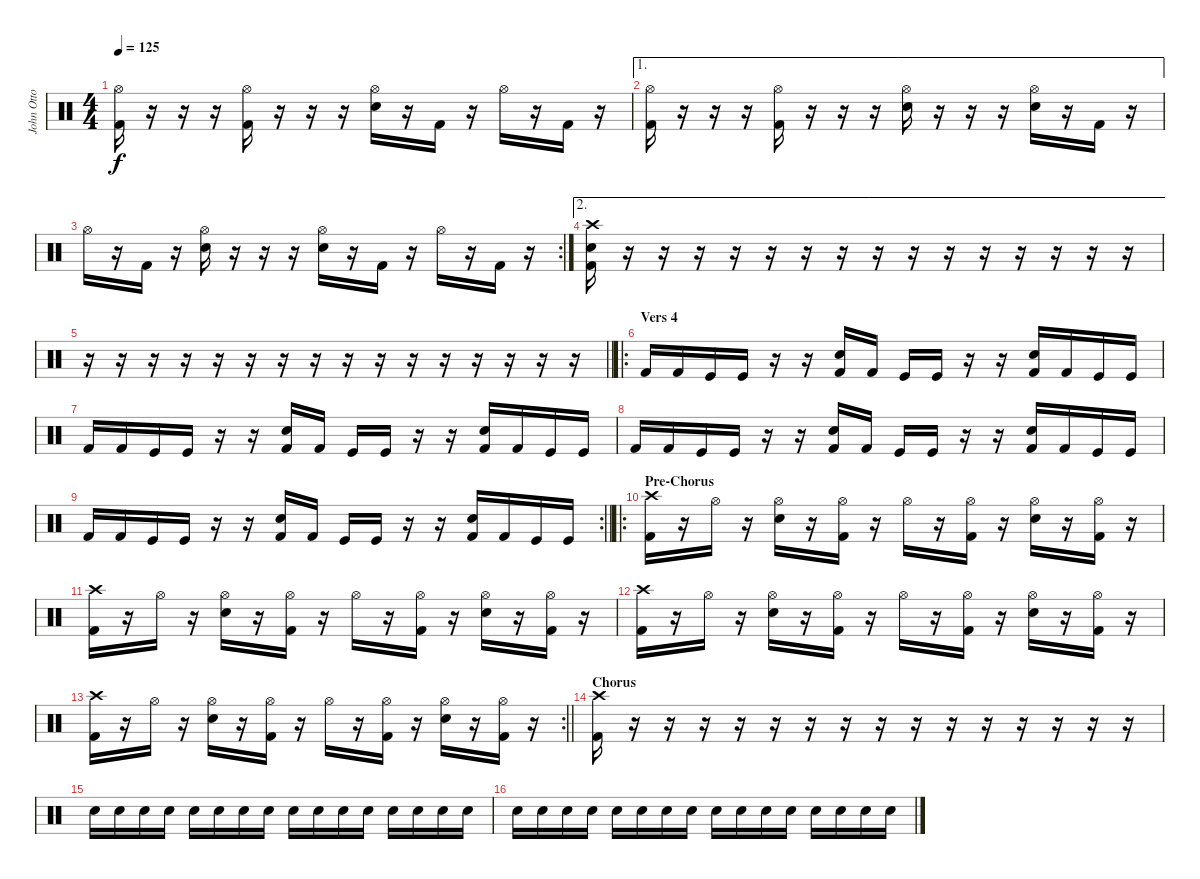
\track ("John Otto" "John Otto") {instrument percussion}
\staff {score}
\articulation defaults
\ts (4 4)
\tempo 125
\clef neutral
\ks c
("Hi-Hat (open)" "Kick (hit) 2").16{dy f} r.16 r.16 r.16 ("Hi-Hat (open)" "Kick (hit) 2").16 r.16 r.16 r.16 ("Hi-Hat (open)" "Snare (hit) 2").16 r.16 "Kick (hit) 2".16 r.16 "Hi-Hat (open)".16 r.16 "Kick (hit) 2".16 r.16 |
\ae 1
("Hi-Hat (open)" "Kick (hit) 2").16 r.16 r.16 r.16 ("Hi-Hat (open)" "Kick (hit) 2").16 r.16 r.16 r.16 ("Hi-Hat (open)" "Snare (hit) 2").16 r.16 r.16 r.16 ("Hi-Hat (open)" "Snare (hit) 2").16 r.16 "Kick (hit) 2".16 r.16 |
\rc 2 "Hi-Hat (open)".16
r.16 "Kick (hit) 2".16 r.16 ("Hi-Hat (open)" "Snare (hit) 2").16 r.16 r.16 r.16 ("Hi-Hat (open)" "Snare (hit) 2").16 r.16 "Kick (hit) 2".16 r.16 "Hi-Hat (open)".16 r.16 "Kick (hit) 2".16 r.16 |
\ae 2
("Crash high (hit)" "Snare (hit) 2" "Kick (hit) 2").16 r.16 r.16 r.16 r.16 r.16 r.16 r.16 r.16 r.16 r.16 r.16 r.16 r.16 r.16 r.16 |
\barLineRight lightlight
r.16 r.16 r.16 r.16 r.16 r.16 r.16 r.16 r.16 r.16 r.16 r.16 r.16 r.16 r.16 r.16 |
\ro
\section ("" "Vers 4")
"Kick (hit) 2".16 "Kick (hit) 2".16 "Kick (hit)".16 "Kick (hit)".16 r.16 r.16 ("Snare (hit) 2" "Kick (hit) 2").16 "Kick (hit) 2".16 "Kick (hit)".16 "Kick (hit)".16 r.16 r.16 ("Snare (hit) 2" "Kick (hit) 2").16 "Kick (hit) 2".16 "Kick (hit)".16 "Kick (hit)".16 |
"Kick (hit) 2".16 "Kick (hit) 2".16 "Kick (hit)".16 "Kick (hit)".16 r.16 r.16 ("Snare (hit) 2" "Kick (hit) 2").16 "Kick (hit) 2".16 "Kick (hit)".16 "Kick (hit)".16 r.16 r.16 ("Snare (hit) 2" "Kick (hit) 2").16 "Kick (hit) 2".16 "Kick (hit)".16 "Kick (hit)".16 |
"Kick (hit) 2".16 "Kick (hit) 2".16 "Kick (hit)".16 "Kick (hit)".16 r.16 r.16 ("Snare (hit) 2" "Kick (hit) 2").16 "Kick (hit) 2".16 "Kick (hit)".16 "Kick (hit)".16 r.16 r.16 ("Snare (hit) 2" "Kick (hit) 2").16 "Kick (hit) 2".16 "Kick (hit)".16 "Kick (hit)".16 |
\rc 2
\barLineRight lightlight "Kick (hit) 2".16 "Kick (hit) 2".16 "Kick (hit)".16 "Kick (hit)".16
r.16 r.16 ("Snare (hit) 2" "Kick (hit) 2").16 "Kick (hit) 2".16 "Kick (hit)".16 "Kick (hit)".16 r.16 r.16 ("Snare (hit) 2" "Kick (hit) 2").16 "Kick (hit) 2".16 "Kick (hit)".16 "Kick (hit)".16 |
\ro
\section ("" "Pre-Chorus")
("Crash high (hit)" "Kick (hit) 2").16 r.16 "Hi-Hat (open)".16 r.16 ("Hi-Hat (open)" "Snare (hit) 2").16 r.16 ("Hi-Hat (open)" "Kick (hit) 2").16 r.16 "Hi-Hat (open)".16 r.16 ("Hi-Hat (open)" "Kick (hit) 2").16 r.16 ("Hi-Hat (open)" "Snare (hit) 2").16 r.16 ("Hi-Hat (open)" "Kick (hit) 2").16 r.16 |
("Crash high (hit)" "Kick (hit) 2").16 r.16 "Hi-Hat (open)".16 r.16 ("Hi-Hat (open)" "Snare (hit) 2").16 r.16 ("Hi-Hat (open)" "Kick (hit) 2").16 r.16 "Hi-Hat (open)".16 r.16 ("Hi-Hat (open)" "Kick (hit) 2").16 r.16 ("Hi-Hat (open)" "Snare (hit) 2").16 r.16 ("Hi-Hat (open)" "Kick (hit) 2").16 r.16 |
("Crash high (hit)" "Kick (hit) 2").16 r.16 "Hi-Hat (open)".16 r.16 ("Hi-Hat (open)" "Snare (hit) 2").16 r.16 ("Hi-Hat (open)" "Kick (hit) 2").16 r.16 "Hi-Hat (open)".16 r.16 ("Hi-Hat (open)" "Kick (hit) 2").16 r.16 ("Hi-Hat (open)" "Snare (hit) 2").16 r.16 ("Hi-Hat (open)" "Kick (hit) 2").16 r.16 |
\rc 2
\barLineRight lightlight
("Crash high (hit)" "Kick (hit) 2").16 r.16 "Hi-Hat (open)".16 r.16 ("Hi-Hat (open)" "Snare (hit) 2").16 r.16 ("Hi-Hat (open)" "Kick (hit) 2").16 r.16 "Hi-Hat (open)".16 r.16 ("Hi-Hat (open)" "Kick (hit) 2").16 r.16 ("Hi-Hat (open)" "Snare (hit) 2").16 r.16 ("Hi-Hat (open)" "Kick (hit) 2").16 r.16 |
\section ("" "Chorus")
("Crash high (hit)" "Kick (hit) 2").16 r.16 r.16 r.16 r.16 r.16 r.16 r.16 r.16 r.16 r.16 r.16 r.16 r.16 r.16 r.16{volume 0} |
"Electric Snare (hit)".16{volume 8} "Electric Snare (hit)".16 "Electric Snare (hit)".16 "Electric Snare (hit)".16 "Electric Snare (hit)".16 "Electric Snare (hit)".16 "Electric Snare (hit)".16 "Electric Snare (hit)".16 "Electric Snare (hit)".16 "Electric Snare (hit)".16 "Electric Snare (hit)".16 "Electric Snare (hit)".16 "Electric Snare (hit)".16 "Electric Snare (hit)".16 "Electric Snare (hit)".16 "Electric Snare (hit)".16 |
"Electric Snare (hit)".16 "Electric Snare (hit)".16 "Electric Snare (hit)".16 "Electric Snare (hit)".16 "Electric Snare (hit)".16 "Electric Snare (hit)".16 "Electric Snare (hit)".16 "Electric Snare (hit)".16 "Electric Snare (hit)".16 "Electric Snare (hit)".16 "Electric Snare (hit)".16 "Electric Snare (hit)".16 "Electric Snare (hit)".16 "Electric Snare (hit)".16 "Electric Snare (hit)".16 "Electric Snare (hit)".16
